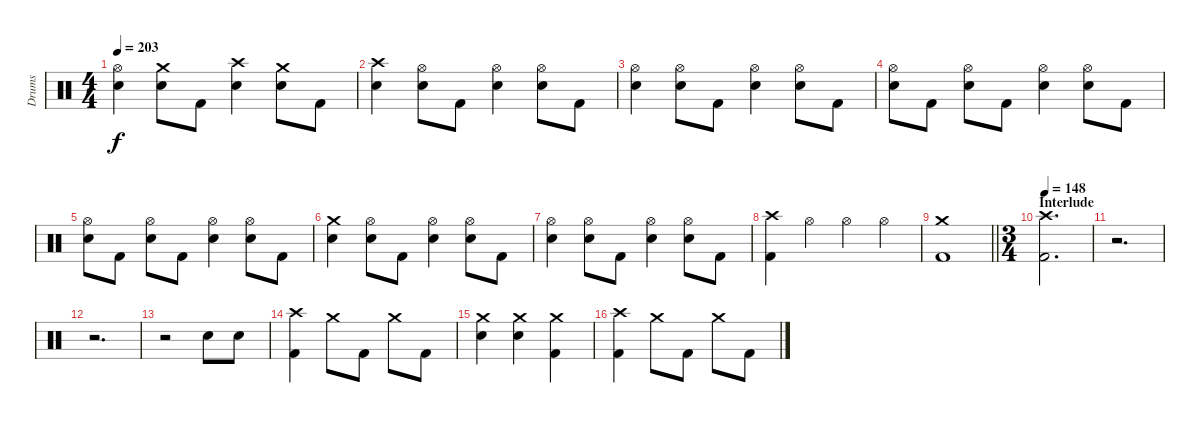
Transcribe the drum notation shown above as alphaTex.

\track ("Drums" "Drums") {instrument percussion}
\staff {score}
\articulation defaults
\ts (4 4)
\tempo 203
\clef neutral
\ks c
("Hi-Hat (open)" "Snare (hit) 2").4{dy f} ("Crash medium (hit)" "Snare (hit) 2").8 "Kick (hit) 2".8 ("Crash high (hit)" "Snare (hit) 2").4 ("Crash medium (hit)" "Snare (hit) 2").8 "Kick (hit) 2".8 |
("Crash high (hit)" "Snare (hit) 2").4 ("Hi-Hat (open)" "Snare (hit) 2").8 "Kick (hit) 2".8 ("Hi-Hat (open)" "Snare (hit) 2").4 ("Hi-Hat (open)" "Snare (hit) 2").8 "Kick (hit) 2".8 |
("Hi-Hat (open)" "Snare (hit) 2").4 ("Hi-Hat (open)" "Snare (hit) 2").8 "Kick (hit) 2".8 ("Hi-Hat (open)" "Snare (hit) 2").4 ("Hi-Hat (open)" "Snare (hit) 2").8 "Kick (hit) 2".8 |
("Hi-Hat (open)" "Snare (hit) 2").8 "Kick (hit) 2".8 ("Hi-Hat (open)" "Snare (hit) 2").8 "Kick (hit) 2".8 ("Hi-Hat (open)" "Snare (hit) 2").4 ("Hi-Hat (open)" "Snare (hit) 2").8 "Kick (hit) 2".8 |
("Hi-Hat (open)" "Snare (hit) 2").8 "Kick (hit) 2".8 ("Hi-Hat (open)" "Snare (hit) 2").8 "Kick (hit) 2".8 ("Hi-Hat (open)" "Snare (hit) 2").4 ("Hi-Hat (open)" "Snare (hit) 2").8 "Kick (hit) 2".8 |
("Crash medium (hit)" "Snare (hit) 2").4 ("Hi-Hat (open)" "Snare (hit) 2").8 "Kick (hit) 2".8 ("Hi-Hat (open)" "Snare (hit) 2").4 ("Hi-Hat (open)" "Snare (hit) 2").8 "Kick (hit) 2".8 |
("Hi-Hat (open)" "Snare (hit) 2").4 ("Hi-Hat (open)" "Snare (hit) 2").8 "Kick (hit) 2".8 ("Hi-Hat (open)" "Snare (hit) 2").4 ("Hi-Hat (open)" "Snare (hit) 2").8 "Kick (hit) 2".8 |
("Crash high (hit)" "Kick (hit) 2").4 "Hi-Hat (open)".4 "Hi-Hat (open)".4 "Hi-Hat (open)".4 |
\barLineRight lightlight
("Crash medium (hit)" "Kick (hit) 2").1 |
\ts (3 4)
\section ("" "Interlude")
\tempo 148
("Crash high (hit)" "Kick (hit) 2").2{d} |
r.2{d} |
r.2{d} |
r.2 "Snare (hit) 2".8 "Snare (hit) 2".8 |
("Crash high (hit)" "Kick (hit) 2").4 "Crash medium (hit)".8 "Kick (hit) 2".8 "Crash medium (hit)".8 "Kick (hit) 2".8 |
("Crash medium (hit)" "Snare (hit) 2").4 ("Crash medium (hit)" "Snare (hit) 2").4 ("Crash medium (hit)" "Kick (hit) 2").4 |
("Crash high (hit)" "Kick (hit) 2").4 "Crash medium (hit)".8 "Kick (hit) 2".8 "Crash medium (hit)".8 "Kick (hit) 2".8
